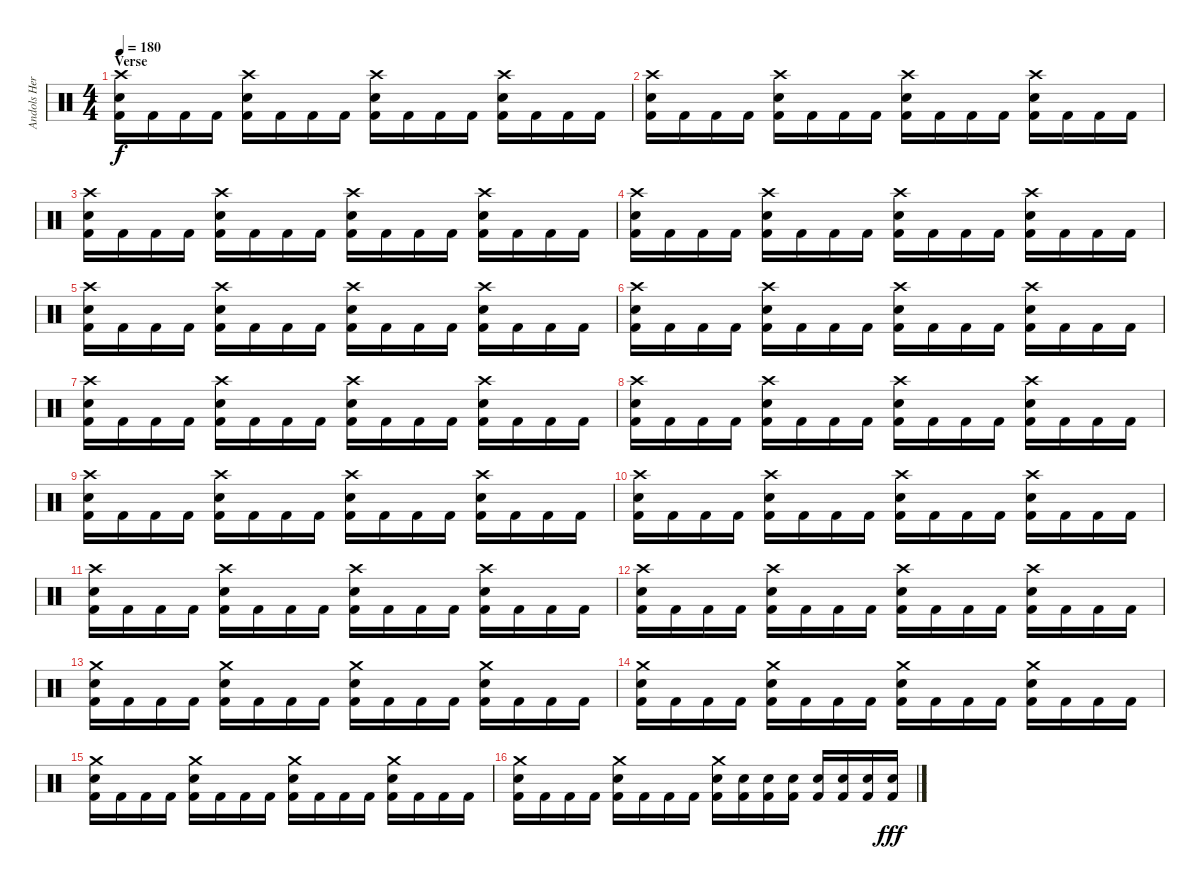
\track ("Andols Herrick" "Andols Her") {instrument percussion}
\staff {score}
\articulation defaults
\ts (4 4)
\section ("" "Verse")
\tempo 180
\clef neutral
\ks c
("Crash high (hit)" "Electric Snare (hit)" "Kick (hit) 2").16{dy f} "Kick (hit) 2".16 "Kick (hit) 2".16 "Kick (hit) 2".16 ("Crash high (hit)" "Electric Snare (hit)" "Kick (hit) 2").16 "Kick (hit) 2".16 "Kick (hit) 2".16 "Kick (hit) 2".16 ("Crash high (hit)" "Electric Snare (hit)" "Kick (hit) 2").16 "Kick (hit) 2".16 "Kick (hit) 2".16 "Kick (hit) 2".16 ("Crash high (hit)" "Electric Snare (hit)" "Kick (hit) 2").16 "Kick (hit) 2".16 "Kick (hit) 2".16 "Kick (hit) 2".16 |
("Crash high (hit)" "Electric Snare (hit)" "Kick (hit) 2").16 "Kick (hit) 2".16 "Kick (hit) 2".16 "Kick (hit) 2".16 ("Crash high (hit)" "Electric Snare (hit)" "Kick (hit) 2").16 "Kick (hit) 2".16 "Kick (hit) 2".16 "Kick (hit) 2".16 ("Crash high (hit)" "Electric Snare (hit)" "Kick (hit) 2").16 "Kick (hit) 2".16 "Kick (hit) 2".16 "Kick (hit) 2".16 ("Crash high (hit)" "Electric Snare (hit)" "Kick (hit) 2").16 "Kick (hit) 2".16 "Kick (hit) 2".16 "Kick (hit) 2".16 |
("Crash high (hit)" "Electric Snare (hit)" "Kick (hit) 2").16 "Kick (hit) 2".16 "Kick (hit) 2".16 "Kick (hit) 2".16 ("Crash high (hit)" "Electric Snare (hit)" "Kick (hit) 2").16 "Kick (hit) 2".16 "Kick (hit) 2".16 "Kick (hit) 2".16 ("Crash high (hit)" "Electric Snare (hit)" "Kick (hit) 2").16 "Kick (hit) 2".16 "Kick (hit) 2".16 "Kick (hit) 2".16 ("Crash high (hit)" "Electric Snare (hit)" "Kick (hit) 2").16 "Kick (hit) 2".16 "Kick (hit) 2".16 "Kick (hit) 2".16 |
("Crash high (hit)" "Electric Snare (hit)" "Kick (hit) 2").16 "Kick (hit) 2".16 "Kick (hit) 2".16 "Kick (hit) 2".16 ("Crash high (hit)" "Electric Snare (hit)" "Kick (hit) 2").16 "Kick (hit) 2".16 "Kick (hit) 2".16 "Kick (hit) 2".16 ("Crash high (hit)" "Electric Snare (hit)" "Kick (hit) 2").16 "Kick (hit) 2".16 "Kick (hit) 2".16 "Kick (hit) 2".16 ("Crash high (hit)" "Electric Snare (hit)" "Kick (hit) 2").16 "Kick (hit) 2".16 "Kick (hit) 2".16 "Kick (hit) 2".16 |
("Crash high (hit)" "Electric Snare (hit)" "Kick (hit) 2").16 "Kick (hit) 2".16 "Kick (hit) 2".16 "Kick (hit) 2".16 ("Crash high (hit)" "Electric Snare (hit)" "Kick (hit) 2").16 "Kick (hit) 2".16 "Kick (hit) 2".16 "Kick (hit) 2".16 ("Crash high (hit)" "Electric Snare (hit)" "Kick (hit) 2").16 "Kick (hit) 2".16 "Kick (hit) 2".16 "Kick (hit) 2".16 ("Crash high (hit)" "Electric Snare (hit)" "Kick (hit) 2").16 "Kick (hit) 2".16 "Kick (hit) 2".16 "Kick (hit) 2".16 |
("Crash high (hit)" "Electric Snare (hit)" "Kick (hit) 2").16 "Kick (hit) 2".16 "Kick (hit) 2".16 "Kick (hit) 2".16 ("Crash high (hit)" "Electric Snare (hit)" "Kick (hit) 2").16 "Kick (hit) 2".16 "Kick (hit) 2".16 "Kick (hit) 2".16 ("Crash high (hit)" "Electric Snare (hit)" "Kick (hit) 2").16 "Kick (hit) 2".16 "Kick (hit) 2".16 "Kick (hit) 2".16 ("Crash high (hit)" "Electric Snare (hit)" "Kick (hit) 2").16 "Kick (hit) 2".16 "Kick (hit) 2".16 "Kick (hit) 2".16 |
("Crash high (hit)" "Electric Snare (hit)" "Kick (hit) 2").16 "Kick (hit) 2".16 "Kick (hit) 2".16 "Kick (hit) 2".16 ("Crash high (hit)" "Electric Snare (hit)" "Kick (hit) 2").16 "Kick (hit) 2".16 "Kick (hit) 2".16 "Kick (hit) 2".16 ("Crash high (hit)" "Electric Snare (hit)" "Kick (hit) 2").16 "Kick (hit) 2".16 "Kick (hit) 2".16 "Kick (hit) 2".16 ("Crash high (hit)" "Electric Snare (hit)" "Kick (hit) 2").16 "Kick (hit) 2".16 "Kick (hit) 2".16 "Kick (hit) 2".16 |
("Crash high (hit)" "Electric Snare (hit)" "Kick (hit) 2").16 "Kick (hit) 2".16 "Kick (hit) 2".16 "Kick (hit) 2".16 ("Crash high (hit)" "Electric Snare (hit)" "Kick (hit) 2").16 "Kick (hit) 2".16 "Kick (hit) 2".16 "Kick (hit) 2".16 ("Crash high (hit)" "Electric Snare (hit)" "Kick (hit) 2").16 "Kick (hit) 2".16 "Kick (hit) 2".16 "Kick (hit) 2".16 ("Crash high (hit)" "Electric Snare (hit)" "Kick (hit) 2").16 "Kick (hit) 2".16 "Kick (hit) 2".16 "Kick (hit) 2".16 |
("Crash high (hit)" "Electric Snare (hit)" "Kick (hit) 2").16 "Kick (hit) 2".16 "Kick (hit) 2".16 "Kick (hit) 2".16 ("Crash high (hit)" "Electric Snare (hit)" "Kick (hit) 2").16 "Kick (hit) 2".16 "Kick (hit) 2".16 "Kick (hit) 2".16 ("Crash high (hit)" "Electric Snare (hit)" "Kick (hit) 2").16 "Kick (hit) 2".16 "Kick (hit) 2".16 "Kick (hit) 2".16 ("Crash high (hit)" "Electric Snare (hit)" "Kick (hit) 2").16 "Kick (hit) 2".16 "Kick (hit) 2".16 "Kick (hit) 2".16 |
("Crash high (hit)" "Electric Snare (hit)" "Kick (hit) 2").16 "Kick (hit) 2".16 "Kick (hit) 2".16 "Kick (hit) 2".16 ("Crash high (hit)" "Electric Snare (hit)" "Kick (hit) 2").16 "Kick (hit) 2".16 "Kick (hit) 2".16 "Kick (hit) 2".16 ("Crash high (hit)" "Electric Snare (hit)" "Kick (hit) 2").16 "Kick (hit) 2".16 "Kick (hit) 2".16 "Kick (hit) 2".16 ("Crash high (hit)" "Electric Snare (hit)" "Kick (hit) 2").16 "Kick (hit) 2".16 "Kick (hit) 2".16 "Kick (hit) 2".16 |
("Crash high (hit)" "Electric Snare (hit)" "Kick (hit) 2").16 "Kick (hit) 2".16 "Kick (hit) 2".16 "Kick (hit) 2".16 ("Crash high (hit)" "Electric Snare (hit)" "Kick (hit) 2").16 "Kick (hit) 2".16 "Kick (hit) 2".16 "Kick (hit) 2".16 ("Crash high (hit)" "Electric Snare (hit)" "Kick (hit) 2").16 "Kick (hit) 2".16 "Kick (hit) 2".16 "Kick (hit) 2".16 ("Crash high (hit)" "Electric Snare (hit)" "Kick (hit) 2").16 "Kick (hit) 2".16 "Kick (hit) 2".16 "Kick (hit) 2".16 |
("Crash high (hit)" "Electric Snare (hit)" "Kick (hit) 2").16 "Kick (hit) 2".16 "Kick (hit) 2".16 "Kick (hit) 2".16 ("Crash high (hit)" "Electric Snare (hit)" "Kick (hit) 2").16 "Kick (hit) 2".16 "Kick (hit) 2".16 "Kick (hit) 2".16 ("Crash high (hit)" "Electric Snare (hit)" "Kick (hit) 2").16 "Kick (hit) 2".16 "Kick (hit) 2".16 "Kick (hit) 2".16 ("Crash high (hit)" "Electric Snare (hit)" "Kick (hit) 2").16 "Kick (hit) 2".16 "Kick (hit) 2".16 "Kick (hit) 2".16 |
("Crash medium (hit)" "Electric Snare (hit)" "Kick (hit) 2").16 "Kick (hit) 2".16 "Kick (hit) 2".16 "Kick (hit) 2".16 ("Crash medium (hit)" "Electric Snare (hit)" "Kick (hit) 2").16 "Kick (hit) 2".16 "Kick (hit) 2".16 "Kick (hit) 2".16 ("Crash medium (hit)" "Electric Snare (hit)" "Kick (hit) 2").16 "Kick (hit) 2".16 "Kick (hit) 2".16 "Kick (hit) 2".16 ("Crash medium (hit)" "Electric Snare (hit)" "Kick (hit) 2").16 "Kick (hit) 2".16 "Kick (hit) 2".16 "Kick (hit) 2".16 |
("Crash medium (hit)" "Electric Snare (hit)" "Kick (hit) 2").16 "Kick (hit) 2".16 "Kick (hit) 2".16 "Kick (hit) 2".16 ("Crash medium (hit)" "Electric Snare (hit)" "Kick (hit) 2").16 "Kick (hit) 2".16 "Kick (hit) 2".16 "Kick (hit) 2".16 ("Crash medium (hit)" "Electric Snare (hit)" "Kick (hit) 2").16 "Kick (hit) 2".16 "Kick (hit) 2".16 "Kick (hit) 2".16 ("Crash medium (hit)" "Electric Snare (hit)" "Kick (hit) 2").16 "Kick (hit) 2".16 "Kick (hit) 2".16 "Kick (hit) 2".16 |
("Crash medium (hit)" "Electric Snare (hit)" "Kick (hit) 2").16 "Kick (hit) 2".16 "Kick (hit) 2".16 "Kick (hit) 2".16 ("Crash medium (hit)" "Electric Snare (hit)" "Kick (hit) 2").16 "Kick (hit) 2".16 "Kick (hit) 2".16 "Kick (hit) 2".16 ("Crash medium (hit)" "Electric Snare (hit)" "Kick (hit) 2").16 "Kick (hit) 2".16 "Kick (hit) 2".16 "Kick (hit) 2".16 ("Crash medium (hit)" "Electric Snare (hit)" "Kick (hit) 2").16 "Kick (hit) 2".16 "Kick (hit) 2".16 "Kick (hit) 2".16 |
("Crash medium (hit)" "Electric Snare (hit)" "Kick (hit) 2").16 "Kick (hit) 2".16 "Kick (hit) 2".16 "Kick (hit) 2".16 ("Crash medium (hit)" "Electric Snare (hit)" "Kick (hit) 2").16 "Kick (hit) 2".16 "Kick (hit) 2".16 "Kick (hit) 2".16 ("Crash medium (hit)" "Electric Snare (hit)" "Kick (hit) 2").16 ("Electric Snare (hit)" "Kick (hit) 2").16 ("Electric Snare (hit)" "Kick (hit) 2").16 ("Electric Snare (hit)" "Kick (hit) 2").16 ("Electric Snare (hit)" "Kick (hit) 2").16 ("Electric Snare (hit)" "Kick (hit) 2").16 ("Electric Snare (hit)" "Kick (hit) 2").16 ("Electric Snare (hit)" "Kick (hit) 2").16{dy fff}
